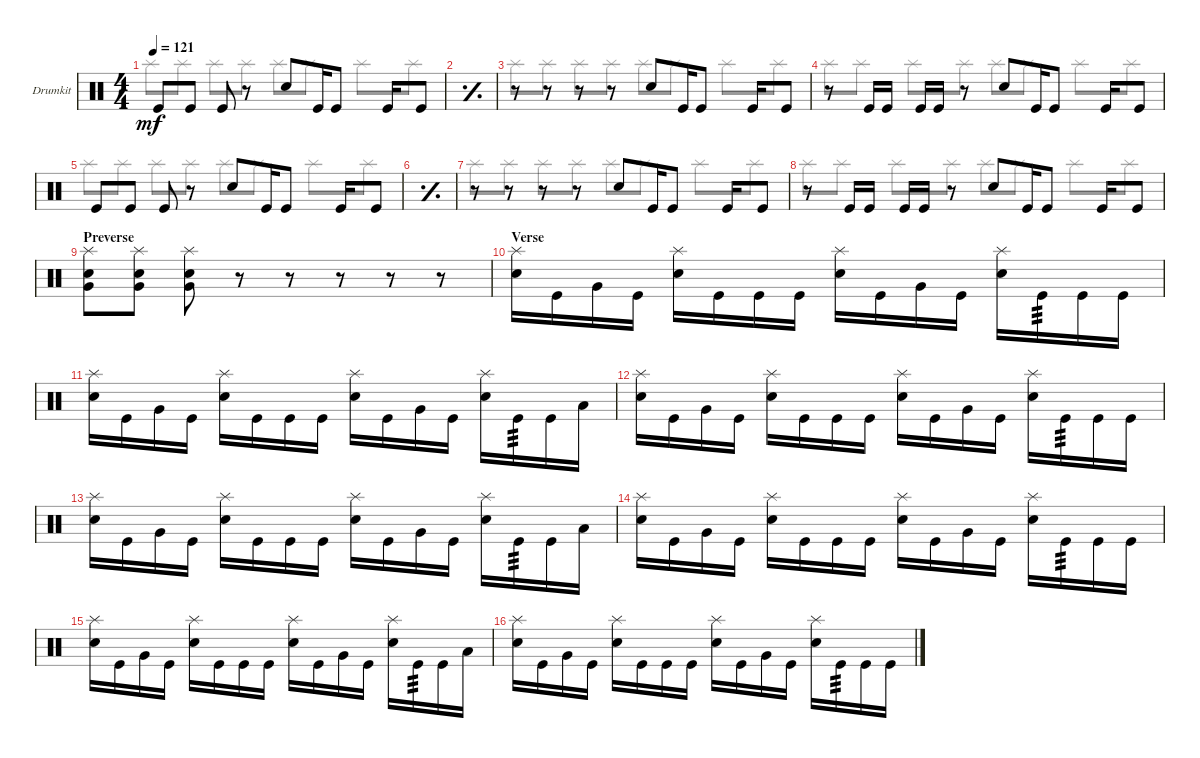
\defaultSystemsLayout 4
\bracketExtendMode groupsimilarinstruments
\firstSystemTrackNameOrientation horizontal
\otherSystemsTrackNameOrientation horizontal
\track ("Drumkit" "Drumkit") {instrument percussion}
\staff {score}
\articulation defaults
\voice
\ts (4 4)
\tempo 121
\clef neutral
\ks c "Kick (hit)".8{dy mf} "Kick (hit)".8 "Kick (hit)".8
r.8 "Snare (hit) 2".8 "Kick (hit)".16 "Kick (hit)".8 "Kick (hit)".16 "Kick (hit)".8 |
\simile simple
|
\simile none
r.8 r.8 r.8 r.8 "Snare (hit) 2".8 "Kick (hit)".16 "Kick (hit)".8 "Kick (hit)".16 "Kick (hit)".8 |
r.8 "Kick (hit)".16 "Kick (hit)".16 "Kick (hit)".16 "Kick (hit)".16 r.8 "Snare (hit) 2".8 "Kick (hit)".16 "Kick (hit)".8 "Kick (hit)".16 "Kick (hit)".8 |
"Kick (hit)".8 "Kick (hit)".8 "Kick (hit)".8 r.8 "Snare (hit) 2".8 "Kick (hit)".16 "Kick (hit)".8 "Kick (hit)".16 "Kick (hit)".8 |
\simile simple
|
\simile none
r.8 r.8 r.8 r.8 "Snare (hit) 2".8 "Kick (hit)".16 "Kick (hit)".8 "Kick (hit)".16 "Kick (hit)".8 |
r.8 "Kick (hit)".16 "Kick (hit)".16 "Kick (hit)".16 "Kick (hit)".16 r.8 "Snare (hit) 2".8 "Kick (hit)".16 "Kick (hit)".8 "Kick (hit)".16 "Kick (hit)".8 |
\section ("" "Preverse")
("Snare (hit) 2" "Very Low Tom (hit)" "Splash (hit)").8 ("Snare (hit) 2" "Very Low Tom (hit)" "Splash (hit)").8 ("Snare (hit) 2" "Very Low Tom (hit)" "Splash (hit)").8 r.8 r.8 r.8 r.8 r.8 |
\section ("" "Verse")
("Snare (hit) 2" "Splash (hit)").16 "Kick (hit)".16 "Very Low Tom (hit)".16 "Kick (hit)".16 ("Snare (hit) 2" "Splash (hit)").16 "Kick (hit)".16 "Kick (hit)".16 "Kick (hit)".16 ("Snare (hit) 2" "Splash (hit)").16 "Kick (hit)".16 "Very Low Tom (hit)".16 "Kick (hit)".16 ("Snare (hit) 2" "Splash (hit)").16 "Kick (hit)".16{tp 3} "Kick (hit)".16 "Kick (hit)".16 |
("Snare (hit) 2" "Splash (hit)").16 "Kick (hit)".16 "Very Low Tom (hit)".16 "Kick (hit)".16 ("Snare (hit) 2" "Splash (hit)").16 "Kick (hit)".16 "Kick (hit)".16 "Kick (hit)".16 ("Snare (hit) 2" "Splash (hit)").16 "Kick (hit)".16 "Very Low Tom (hit)".16 "Kick (hit)".16 ("Snare (hit) 2" "Splash (hit)").16 "Kick (hit)".16{tp 3} "Kick (hit)".16 "Low Tom (hit)".16 |
("Snare (hit) 2" "Splash (hit)").16 "Kick (hit)".16 "Very Low Tom (hit)".16 "Kick (hit)".16 ("Snare (hit) 2" "Splash (hit)").16 "Kick (hit)".16 "Kick (hit)".16 "Kick (hit)".16 ("Snare (hit) 2" "Splash (hit)").16 "Kick (hit)".16 "Very Low Tom (hit)".16 "Kick (hit)".16 ("Snare (hit) 2" "Splash (hit)").16 "Kick (hit)".16{tp 3} "Kick (hit)".16 "Kick (hit)".16 |
("Snare (hit) 2" "Splash (hit)").16 "Kick (hit)".16 "Very Low Tom (hit)".16 "Kick (hit)".16 ("Snare (hit) 2" "Splash (hit)").16 "Kick (hit)".16 "Kick (hit)".16 "Kick (hit)".16 ("Snare (hit) 2" "Splash (hit)").16 "Kick (hit)".16 "Very Low Tom (hit)".16 "Kick (hit)".16 ("Snare (hit) 2" "Splash (hit)").16 "Kick (hit)".16{tp 3} "Kick (hit)".16 "Low Tom (hit)".16 |
("Snare (hit) 2" "Splash (hit)").16 "Kick (hit)".16 "Very Low Tom (hit)".16 "Kick (hit)".16 ("Snare (hit) 2" "Splash (hit)").16 "Kick (hit)".16 "Kick (hit)".16 "Kick (hit)".16 ("Snare (hit) 2" "Splash (hit)").16 "Kick (hit)".16 "Very Low Tom (hit)".16 "Kick (hit)".16 ("Snare (hit) 2" "Splash (hit)").16 "Kick (hit)".16{tp 3} "Kick (hit)".16 "Kick (hit)".16 |
("Snare (hit) 2" "Splash (hit)").16 "Kick (hit)".16 "Very Low Tom (hit)".16 "Kick (hit)".16 ("Snare (hit) 2" "Splash (hit)").16 "Kick (hit)".16 "Kick (hit)".16 "Kick (hit)".16 ("Snare (hit) 2" "Splash (hit)").16 "Kick (hit)".16 "Very Low Tom (hit)".16 "Kick (hit)".16 ("Snare (hit) 2" "Splash (hit)").16 "Kick (hit)".16{tp 3} "Kick (hit)".16 "Low Tom (hit)".16 |
("Snare (hit) 2" "Splash (hit)").16 "Kick (hit)".16 "Very Low Tom (hit)".16 "Kick (hit)".16 ("Snare (hit) 2" "Splash (hit)").16 "Kick (hit)".16 "Kick (hit)".16 "Kick (hit)".16 ("Snare (hit) 2" "Splash (hit)").16 "Kick (hit)".16 "Very Low Tom (hit)".16 "Kick (hit)".16 ("Snare (hit) 2" "Splash (hit)").16 "Kick (hit)".16{tp 3} "Kick (hit)".16 "Kick (hit)".16
\voice
\clef neutral
\ottava regular
\simile none
\ks c "Splash (hit)".8{dy mf} "Splash (hit)".8 "Splash (hit)".8 "Splash (hit)".8 "Splash (hit)".8 "Splash (hit)".8 "Splash (hit)".8 "Splash (hit)".8
|
\simile simple
|
\simile none "Splash (hit)".8 "Splash (hit)".8 "Splash (hit)".8 "Splash (hit)".8 "Splash (hit)".8 "Splash (hit)".8 "Splash (hit)".8 "Splash (hit)".8
|
"Splash (hit)".8 "Splash (hit)".8 "Splash (hit)".8 "Splash (hit)".8 "Splash (hit)".8 "Splash (hit)".8 "Splash (hit)".8 "Splash (hit)".8 |
"Splash (hit)".8 "Splash (hit)".8 "Splash (hit)".8 "Splash (hit)".8 "Splash (hit)".8 "Splash (hit)".8 "Splash (hit)".8 "Splash (hit)".8 |
\simile simple
|
\simile none "Splash (hit)".8 "Splash (hit)".8 "Splash (hit)".8 "Splash (hit)".8 "Splash (hit)".8 "Splash (hit)".8 "Splash (hit)".8 "Splash (hit)".8
|
"Splash (hit)".8 "Splash (hit)".8 "Splash (hit)".8 "Splash (hit)".8 "Splash (hit)".8 "Splash (hit)".8 "Splash (hit)".8 "Splash (hit)".8 |
|
|
|
|
|
|
|
